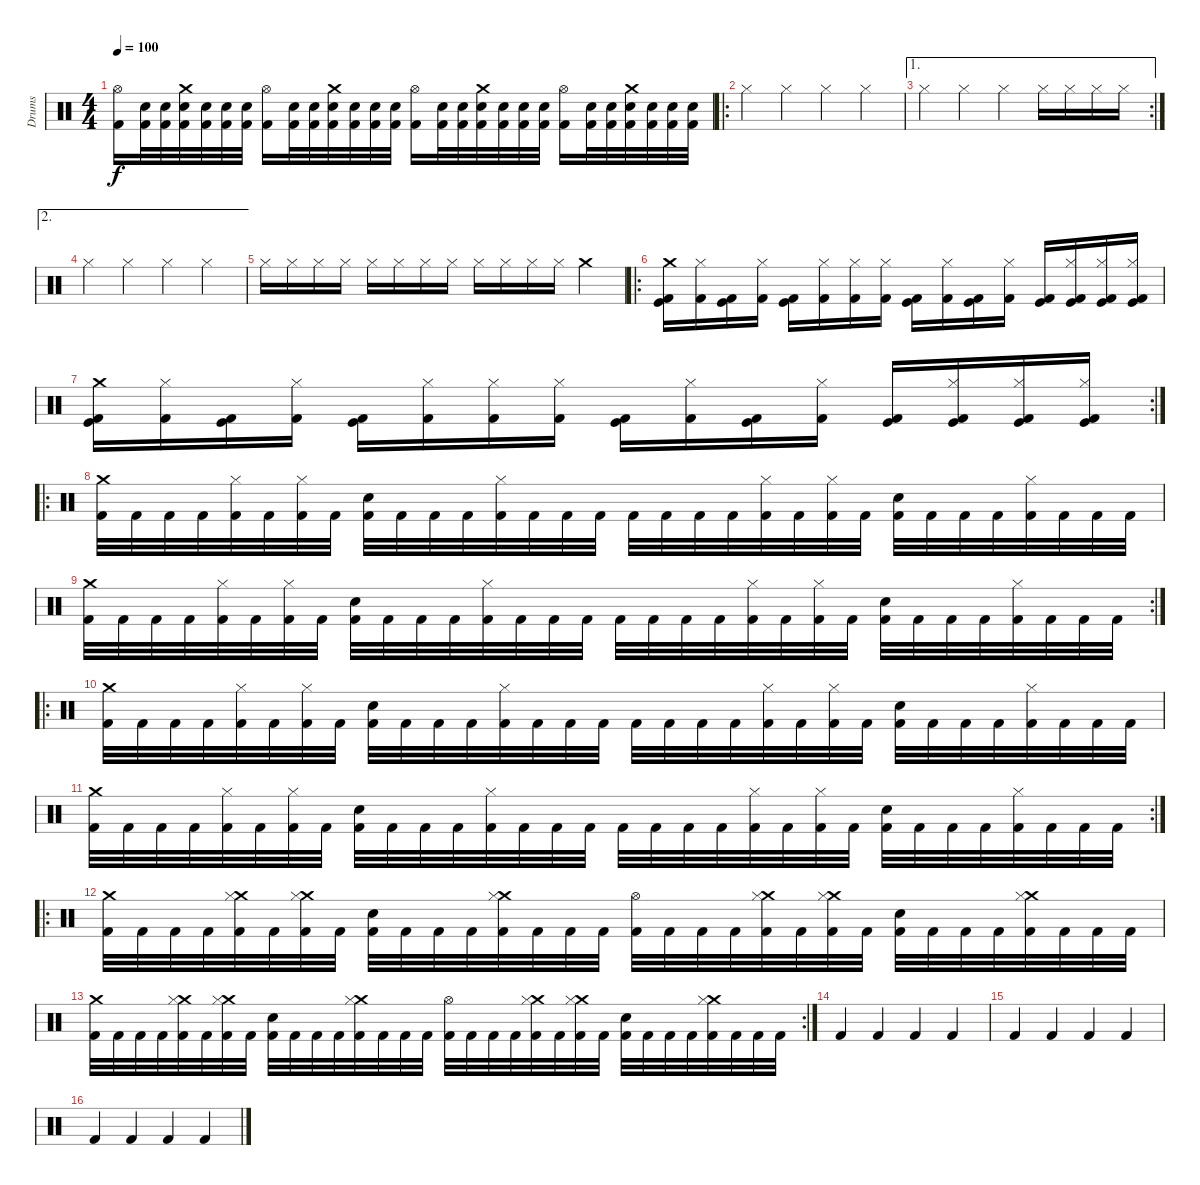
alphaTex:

\track ("Drums" "Drums") {instrument percussion}
\staff {score}
\articulation defaults
\ts (4 4)
\tempo 100
\clef neutral
\ks c
("Hi-Hat (open)" "Kick (hit) 2").16{dy f} ("Snare (hit) 2" "Kick (hit) 2").32 ("Snare (hit) 2" "Kick (hit) 2").32 ("Crash medium (hit)" "Snare (hit) 2" "Kick (hit) 2").32 ("Snare (hit) 2" "Kick (hit) 2").32 ("Snare (hit) 2" "Kick (hit) 2").32 ("Snare (hit) 2" "Kick (hit) 2").32 ("Hi-Hat (open)" "Kick (hit) 2").16 ("Snare (hit) 2" "Kick (hit) 2").32 ("Snare (hit) 2" "Kick (hit) 2").32 ("Crash medium (hit)" "Snare (hit) 2" "Kick (hit) 2").32 ("Snare (hit) 2" "Kick (hit) 2").32 ("Snare (hit) 2" "Kick (hit) 2").32 ("Snare (hit) 2" "Kick (hit) 2").32 ("Hi-Hat (open)" "Kick (hit) 2").16 ("Snare (hit) 2" "Kick (hit) 2").32 ("Snare (hit) 2" "Kick (hit) 2").32 ("Crash medium (hit)" "Snare (hit) 2" "Kick (hit) 2").32 ("Snare (hit) 2" "Kick (hit) 2").32 ("Snare (hit) 2" "Kick (hit) 2").32 ("Snare (hit) 2" "Kick (hit) 2").32 ("Hi-Hat (open)" "Kick (hit) 2").16 ("Snare (hit) 2" "Kick (hit) 2").32 ("Snare (hit) 2" "Kick (hit) 2").32 ("Crash medium (hit)" "Snare (hit) 2" "Kick (hit) 2").32 ("Snare (hit) 2" "Kick (hit) 2").32 ("Snare (hit) 2" "Kick (hit) 2").32 ("Snare (hit) 2" "Kick (hit) 2").32 |
\ro "Hi-Hat (closed)".4 "Hi-Hat (closed)".4 "Hi-Hat (closed)".4 "Hi-Hat (closed)".4
|
\ae 1
\rc 2 "Hi-Hat (closed)".4 "Hi-Hat (closed)".4 "Hi-Hat (closed)".4 "Hi-Hat (closed)".16 "Hi-Hat (closed)".16 "Hi-Hat (closed)".16 "Hi-Hat (closed)".16
|
\ae 2 "Hi-Hat (closed)".4 "Hi-Hat (closed)".4 "Hi-Hat (closed)".4 "Hi-Hat (closed)".4
|
"Hi-Hat (closed)".16 "Hi-Hat (closed)".16 "Hi-Hat (closed)".16 "Hi-Hat (closed)".16 "Hi-Hat (closed)".16 "Hi-Hat (closed)".16 "Hi-Hat (closed)".16 "Hi-Hat (closed)".16 "Hi-Hat (closed)".16 "Hi-Hat (closed)".16 "Hi-Hat (closed)".16 "Hi-Hat (closed)".16 "Crash medium (hit)".4 |
\ro
("Kick (hit) 2" "Crash medium (hit)" "Kick (hit)").16 ("Kick (hit) 2" "Hi-Hat (closed)").16 ("Kick (hit) 2" "Kick (hit)").16 ("Kick (hit) 2" "Hi-Hat (closed)").16 ("Kick (hit) 2" "Kick (hit)").16 ("Kick (hit) 2" "Hi-Hat (closed)").16 ("Kick (hit) 2" "Hi-Hat (closed)").16 ("Kick (hit) 2" "Hi-Hat (closed)").16 ("Kick (hit) 2" "Kick (hit)").16 ("Kick (hit) 2" "Hi-Hat (closed)").16 ("Kick (hit) 2" "Kick (hit)").16 ("Kick (hit) 2" "Hi-Hat (closed)").16 ("Kick (hit) 2" "Kick (hit)").16 ("Kick (hit) 2" "Hi-Hat (closed)" "Kick (hit)").16 ("Kick (hit) 2" "Hi-Hat (closed)" "Kick (hit)").16 ("Kick (hit) 2" "Hi-Hat (closed)" "Kick (hit)").16 |
\rc 2
("Kick (hit) 2" "Crash medium (hit)" "Kick (hit)").16 ("Kick (hit) 2" "Hi-Hat (closed)").16 ("Kick (hit) 2" "Kick (hit)").16 ("Kick (hit) 2" "Hi-Hat (closed)").16 ("Kick (hit) 2" "Kick (hit)").16 ("Kick (hit) 2" "Hi-Hat (closed)").16 ("Kick (hit) 2" "Hi-Hat (closed)").16 ("Kick (hit) 2" "Hi-Hat (closed)").16 ("Kick (hit) 2" "Kick (hit)").16 ("Kick (hit) 2" "Hi-Hat (closed)").16 ("Kick (hit) 2" "Kick (hit)").16 ("Kick (hit) 2" "Hi-Hat (closed)").16 ("Kick (hit) 2" "Kick (hit)").16 ("Kick (hit) 2" "Hi-Hat (closed)" "Kick (hit)").16 ("Kick (hit) 2" "Hi-Hat (closed)" "Kick (hit)").16 ("Kick (hit) 2" "Hi-Hat (closed)" "Kick (hit)").16 |
\ro
("Crash medium (hit)" "Kick (hit) 2").32 "Kick (hit) 2".32 "Kick (hit) 2".32 "Kick (hit) 2".32 ("Hi-Hat (closed)" "Kick (hit) 2").32 "Kick (hit) 2".32 ("Hi-Hat (closed)" "Kick (hit) 2").32 "Kick (hit) 2".32 ("Snare (hit) 2" "Kick (hit) 2").32 "Kick (hit) 2".32 "Kick (hit) 2".32 "Kick (hit) 2".32 ("Hi-Hat (closed)" "Kick (hit) 2").32 "Kick (hit) 2".32 "Kick (hit) 2".32 "Kick (hit) 2".32 "Kick (hit) 2".32 "Kick (hit) 2".32 "Kick (hit) 2".32 "Kick (hit) 2".32 ("Hi-Hat (closed)" "Kick (hit) 2").32 "Kick (hit) 2".32 ("Hi-Hat (closed)" "Kick (hit) 2").32 "Kick (hit) 2".32 ("Snare (hit) 2" "Kick (hit) 2").32 "Kick (hit) 2".32 "Kick (hit) 2".32 "Kick (hit) 2".32 ("Hi-Hat (closed)" "Kick (hit) 2").32 "Kick (hit) 2".32 "Kick (hit) 2".32 "Kick (hit) 2".32 |
\rc 2
("Crash medium (hit)" "Kick (hit) 2").32 "Kick (hit) 2".32 "Kick (hit) 2".32 "Kick (hit) 2".32 ("Hi-Hat (closed)" "Kick (hit) 2").32 "Kick (hit) 2".32 ("Hi-Hat (closed)" "Kick (hit) 2").32 "Kick (hit) 2".32 ("Snare (hit) 2" "Kick (hit) 2").32 "Kick (hit) 2".32 "Kick (hit) 2".32 "Kick (hit) 2".32 ("Hi-Hat (closed)" "Kick (hit) 2").32 "Kick (hit) 2".32 "Kick (hit) 2".32 "Kick (hit) 2".32 "Kick (hit) 2".32 "Kick (hit) 2".32 "Kick (hit) 2".32 "Kick (hit) 2".32 ("Hi-Hat (closed)" "Kick (hit) 2").32 "Kick (hit) 2".32 ("Hi-Hat (closed)" "Kick (hit) 2").32 "Kick (hit) 2".32 ("Snare (hit) 2" "Kick (hit) 2").32 "Kick (hit) 2".32 "Kick (hit) 2".32 "Kick (hit) 2".32 ("Hi-Hat (closed)" "Kick (hit) 2").32 "Kick (hit) 2".32 "Kick (hit) 2".32 "Kick (hit) 2".32 |
\ro
("Crash medium (hit)" "Kick (hit) 2").32 "Kick (hit) 2".32 "Kick (hit) 2".32 "Kick (hit) 2".32 ("Hi-Hat (closed)" "Kick (hit) 2").32 "Kick (hit) 2".32 ("Hi-Hat (closed)" "Kick (hit) 2").32 "Kick (hit) 2".32 ("Snare (hit) 2" "Kick (hit) 2").32 "Kick (hit) 2".32 "Kick (hit) 2".32 "Kick (hit) 2".32 ("Hi-Hat (closed)" "Kick (hit) 2").32 "Kick (hit) 2".32 "Kick (hit) 2".32 "Kick (hit) 2".32 "Kick (hit) 2".32 "Kick (hit) 2".32 "Kick (hit) 2".32 "Kick (hit) 2".32 ("Hi-Hat (closed)" "Kick (hit) 2").32 "Kick (hit) 2".32 ("Hi-Hat (closed)" "Kick (hit) 2").32 "Kick (hit) 2".32 ("Snare (hit) 2" "Kick (hit) 2").32 "Kick (hit) 2".32 "Kick (hit) 2".32 "Kick (hit) 2".32 ("Hi-Hat (closed)" "Kick (hit) 2").32 "Kick (hit) 2".32 "Kick (hit) 2".32 "Kick (hit) 2".32 |
\rc 2
("Crash medium (hit)" "Kick (hit) 2").32 "Kick (hit) 2".32 "Kick (hit) 2".32 "Kick (hit) 2".32 ("Hi-Hat (closed)" "Kick (hit) 2").32 "Kick (hit) 2".32 ("Hi-Hat (closed)" "Kick (hit) 2").32 "Kick (hit) 2".32 ("Snare (hit) 2" "Kick (hit) 2").32 "Kick (hit) 2".32 "Kick (hit) 2".32 "Kick (hit) 2".32 ("Hi-Hat (closed)" "Kick (hit) 2").32 "Kick (hit) 2".32 "Kick (hit) 2".32 "Kick (hit) 2".32 "Kick (hit) 2".32 "Kick (hit) 2".32 "Kick (hit) 2".32 "Kick (hit) 2".32 ("Hi-Hat (closed)" "Kick (hit) 2").32 "Kick (hit) 2".32 ("Hi-Hat (closed)" "Kick (hit) 2").32 "Kick (hit) 2".32 ("Snare (hit) 2" "Kick (hit) 2").32 "Kick (hit) 2".32 "Kick (hit) 2".32 "Kick (hit) 2".32 ("Hi-Hat (closed)" "Kick (hit) 2").32 "Kick (hit) 2".32 "Kick (hit) 2".32 "Kick (hit) 2".32 |
\ro
("Crash medium (hit)" "Kick (hit) 2").32 "Kick (hit) 2".32 "Kick (hit) 2".32 "Kick (hit) 2".32 ("Crash medium (hit)" "Hi-Hat (closed)" "Kick (hit) 2").32 "Kick (hit) 2".32 ("Crash medium (hit)" "Hi-Hat (closed)" "Kick (hit) 2").32 "Kick (hit) 2".32 ("Snare (hit) 2" "Kick (hit) 2").32 "Kick (hit) 2".32 "Kick (hit) 2".32 "Kick (hit) 2".32 ("Crash medium (hit)" "Hi-Hat (closed)" "Kick (hit) 2").32 "Kick (hit) 2".32 "Kick (hit) 2".32 "Kick (hit) 2".32 ("Hi-Hat (open)" "Kick (hit) 2").32 "Kick (hit) 2".32 "Kick (hit) 2".32 "Kick (hit) 2".32 ("Crash medium (hit)" "Hi-Hat (closed)" "Kick (hit) 2").32 "Kick (hit) 2".32 ("Crash medium (hit)" "Hi-Hat (closed)" "Kick (hit) 2").32 "Kick (hit) 2".32 ("Snare (hit) 2" "Kick (hit) 2").32 "Kick (hit) 2".32 "Kick (hit) 2".32 "Kick (hit) 2".32 ("Crash medium (hit)" "Hi-Hat (closed)" "Kick (hit) 2").32 "Kick (hit) 2".32 "Kick (hit) 2".32 "Kick (hit) 2".32 |
\rc 2
("Crash medium (hit)" "Kick (hit) 2").32 "Kick (hit) 2".32 "Kick (hit) 2".32 "Kick (hit) 2".32 ("Crash medium (hit)" "Hi-Hat (closed)" "Kick (hit) 2").32 "Kick (hit) 2".32 ("Crash medium (hit)" "Hi-Hat (closed)" "Kick (hit) 2").32 "Kick (hit) 2".32 ("Snare (hit) 2" "Kick (hit) 2").32 "Kick (hit) 2".32 "Kick (hit) 2".32 "Kick (hit) 2".32 ("Crash medium (hit)" "Hi-Hat (closed)" "Kick (hit) 2").32 "Kick (hit) 2".32 "Kick (hit) 2".32 "Kick (hit) 2".32 ("Hi-Hat (open)" "Kick (hit) 2").32 "Kick (hit) 2".32 "Kick (hit) 2".32 "Kick (hit) 2".32 ("Crash medium (hit)" "Hi-Hat (closed)" "Kick (hit) 2").32 "Kick (hit) 2".32 ("Crash medium (hit)" "Hi-Hat (closed)" "Kick (hit) 2").32 "Kick (hit) 2".32 ("Snare (hit) 2" "Kick (hit) 2").32 "Kick (hit) 2".32 "Kick (hit) 2".32 "Kick (hit) 2".32 ("Crash medium (hit)" "Hi-Hat (closed)" "Kick (hit) 2").32 "Kick (hit) 2".32 "Kick (hit) 2".32 "Kick (hit) 2".32 |
"Kick (hit) 2".4 "Kick (hit) 2".4 "Kick (hit) 2".4 "Kick (hit) 2".4 |
"Kick (hit) 2".4 "Kick (hit) 2".4 "Kick (hit) 2".4 "Kick (hit) 2".4 |
"Kick (hit) 2".4 "Kick (hit) 2".4 "Kick (hit) 2".4 "Kick (hit) 2".4
